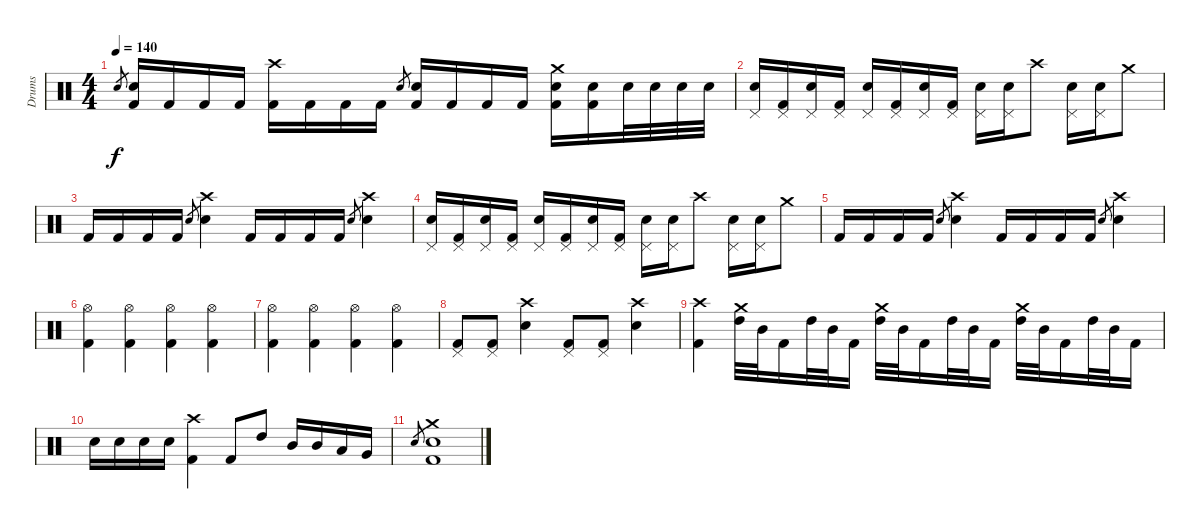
\track ("Drums" "Drums") {instrument percussion}
\staff {score}
\articulation defaults
\ts (4 4)
\tempo 140
\clef neutral
\ks c "Snare (hit) 2".8{gr dy f}
("Snare (hit) 2" "Kick (hit) 2").16 "Kick (hit) 2".16 "Kick (hit) 2".16 "Kick (hit) 2".16 ("Crash high (hit)" "Kick (hit) 2").16 "Kick (hit) 2".16 "Kick (hit) 2".16 "Kick (hit) 2".16 "Snare (hit) 2".8{gr} ("Snare (hit) 2" "Kick (hit) 2").16 "Kick (hit) 2".16 "Kick (hit) 2".16 "Kick (hit) 2".16 ("Crash medium (hit)" "Snare (hit) 2" "Kick (hit) 2").16 ("Snare (hit) 2" "Kick (hit) 2").16 "Snare (hit) 2".32 "Snare (hit) 2".32 "Snare (hit) 2".32 "Snare (hit) 2".32 |
("Snare (hit) 2" "Pedal Hi-Hat (hit)").16 ("Pedal Hi-Hat (hit)" "Kick (hit) 2").16 ("Snare (hit) 2" "Pedal Hi-Hat (hit)").16 ("Pedal Hi-Hat (hit)" "Kick (hit) 2").16 ("Snare (hit) 2" "Pedal Hi-Hat (hit)").16 ("Pedal Hi-Hat (hit)" "Kick (hit) 2").16 ("Snare (hit) 2" "Pedal Hi-Hat (hit)").16 ("Pedal Hi-Hat (hit)" "Kick (hit) 2").16 ("Snare (hit) 2" "Pedal Hi-Hat (hit)").16 ("Snare (hit) 2" "Pedal Hi-Hat (hit)").16 "Crash high (hit)".8 ("Snare (hit) 2" "Pedal Hi-Hat (hit)").16 ("Snare (hit) 2" "Pedal Hi-Hat (hit)").16 "Crash medium (hit)".8 |
"Kick (hit) 2".16 "Kick (hit) 2".16 "Kick (hit) 2".16 "Kick (hit) 2".16 "Snare (hit) 2".8{gr} ("Crash high (hit)" "Snare (hit) 2").4 "Kick (hit) 2".16 "Kick (hit) 2".16 "Kick (hit) 2".16 "Kick (hit) 2".16 "Snare (hit) 2".8{gr} ("Crash high (hit)" "Snare (hit) 2").4 |
("Snare (hit) 2" "Pedal Hi-Hat (hit)").16 ("Pedal Hi-Hat (hit)" "Kick (hit) 2").16 ("Snare (hit) 2" "Pedal Hi-Hat (hit)").16 ("Pedal Hi-Hat (hit)" "Kick (hit) 2").16 ("Snare (hit) 2" "Pedal Hi-Hat (hit)").16 ("Pedal Hi-Hat (hit)" "Kick (hit) 2").16 ("Snare (hit) 2" "Pedal Hi-Hat (hit)").16 ("Pedal Hi-Hat (hit)" "Kick (hit) 2").16 ("Snare (hit) 2" "Pedal Hi-Hat (hit)").16 ("Snare (hit) 2" "Pedal Hi-Hat (hit)").16 "Crash high (hit)".8 ("Snare (hit) 2" "Pedal Hi-Hat (hit)").16 ("Snare (hit) 2" "Pedal Hi-Hat (hit)").16 "Crash medium (hit)".8 |
"Kick (hit) 2".16 "Kick (hit) 2".16 "Kick (hit) 2".16 "Kick (hit) 2".16 "Snare (hit) 2".8{gr} ("Crash high (hit)" "Snare (hit) 2").4 "Kick (hit) 2".16 "Kick (hit) 2".16 "Kick (hit) 2".16 "Kick (hit) 2".16 "Snare (hit) 2".8{gr} ("Crash high (hit)" "Snare (hit) 2").4 |
("Hi-Hat (open)" "Kick (hit) 2").4 ("Hi-Hat (open)" "Kick (hit) 2").4 ("Hi-Hat (open)" "Kick (hit) 2").4 ("Hi-Hat (open)" "Kick (hit) 2").4 |
("Hi-Hat (open)" "Kick (hit) 2").4 ("Hi-Hat (open)" "Kick (hit) 2").4 ("Hi-Hat (open)" "Kick (hit) 2").4 ("Hi-Hat (open)" "Kick (hit) 2").4 |
("Pedal Hi-Hat (hit)" "Kick (hit) 2").8 ("Pedal Hi-Hat (hit)" "Kick (hit) 2").8 ("Crash high (hit)" "Snare (hit) 2").4 ("Pedal Hi-Hat (hit)" "Kick (hit) 2").8 ("Pedal Hi-Hat (hit)" "Kick (hit) 2").8 ("Crash high (hit)" "Snare (hit) 2").4 |
("Crash high (hit)" "Kick (hit) 2").4 ("Crash medium (hit)" "High Tom (hit)").32 "Mid Tom (hit)".32 "Kick (hit) 2".16 "High Tom (hit)".32 "Mid Tom (hit)".32 "Kick (hit) 2".16 ("Crash medium (hit)" "High Tom (hit)").32 "Mid Tom (hit)".32 "Kick (hit) 2".16 "High Tom (hit)".32 "Mid Tom (hit)".32 "Kick (hit) 2".16 ("Crash medium (hit)" "High Tom (hit)").32 "Mid Tom (hit)".32 "Kick (hit) 2".16 "High Tom (hit)".32 "Mid Tom (hit)".32 "Kick (hit) 2".16 |
"Snare (hit) 2".16 "Snare (hit) 2".16 "Snare (hit) 2".16 "Snare (hit) 2".16 ("Crash high (hit)" "Kick (hit) 2").4 "Kick (hit) 2".8 "High Tom (hit)".8 "Mid Tom (hit)".16 "Mid Tom (hit)".16 "Low Tom (hit)".16 "Very Low Tom (hit)".16 |
"Snare (hit) 2".8{gr} ("Crash medium (hit)" "Snare (hit) 2" "Kick (hit) 2").1
